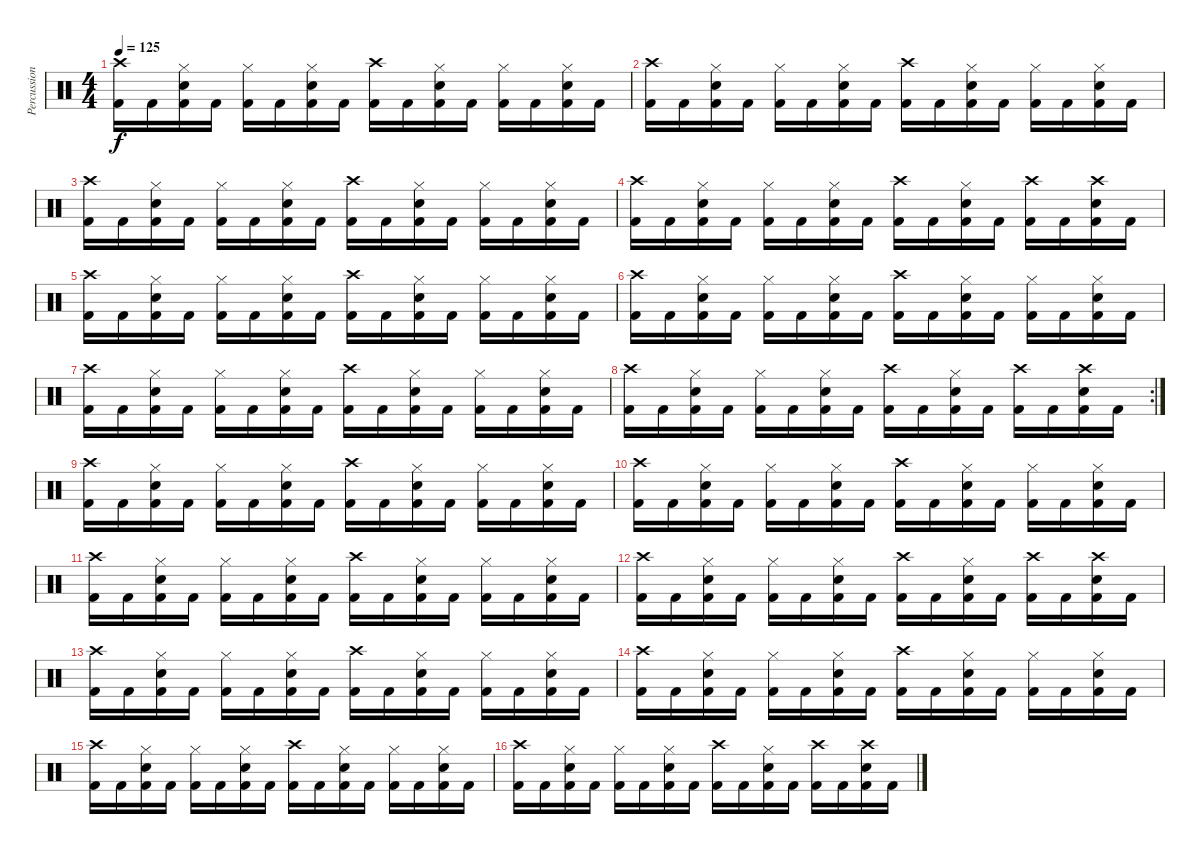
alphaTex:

\track ("Percussion" "Percussion") {instrument percussion}
\staff {score}
\articulation defaults
\ts (4 4)
\tempo 125
\clef neutral
\ks c
("Crash high (hit)" "Kick (hit) 2").16{dy f} "Kick (hit) 2".16 ("Hi-Hat (closed)" "Snare (hit) 2" "Kick (hit) 2").16 "Kick (hit) 2".16 ("Hi-Hat (closed)" "Kick (hit) 2").16 "Kick (hit) 2".16 ("Hi-Hat (closed)" "Snare (hit) 2" "Kick (hit) 2").16 "Kick (hit) 2".16 ("Crash high (hit)" "Kick (hit) 2").16 "Kick (hit) 2".16 ("Hi-Hat (closed)" "Snare (hit) 2" "Kick (hit) 2").16 "Kick (hit) 2".16 ("Hi-Hat (closed)" "Kick (hit) 2").16 "Kick (hit) 2".16 ("Hi-Hat (closed)" "Snare (hit) 2" "Kick (hit) 2").16 "Kick (hit) 2".16 |
("Crash high (hit)" "Kick (hit) 2").16 "Kick (hit) 2".16 ("Hi-Hat (closed)" "Snare (hit) 2" "Kick (hit) 2").16 "Kick (hit) 2".16 ("Hi-Hat (closed)" "Kick (hit) 2").16 "Kick (hit) 2".16 ("Hi-Hat (closed)" "Snare (hit) 2" "Kick (hit) 2").16 "Kick (hit) 2".16 ("Crash high (hit)" "Kick (hit) 2").16 "Kick (hit) 2".16 ("Hi-Hat (closed)" "Snare (hit) 2" "Kick (hit) 2").16 "Kick (hit) 2".16 ("Hi-Hat (closed)" "Kick (hit) 2").16 "Kick (hit) 2".16 ("Hi-Hat (closed)" "Snare (hit) 2" "Kick (hit) 2").16 "Kick (hit) 2".16 |
("Crash high (hit)" "Kick (hit) 2").16 "Kick (hit) 2".16 ("Hi-Hat (closed)" "Snare (hit) 2" "Kick (hit) 2").16 "Kick (hit) 2".16 ("Hi-Hat (closed)" "Kick (hit) 2").16 "Kick (hit) 2".16 ("Hi-Hat (closed)" "Snare (hit) 2" "Kick (hit) 2").16 "Kick (hit) 2".16 ("Crash high (hit)" "Kick (hit) 2").16 "Kick (hit) 2".16 ("Hi-Hat (closed)" "Snare (hit) 2" "Kick (hit) 2").16 "Kick (hit) 2".16 ("Hi-Hat (closed)" "Kick (hit) 2").16 "Kick (hit) 2".16 ("Hi-Hat (closed)" "Snare (hit) 2" "Kick (hit) 2").16 "Kick (hit) 2".16 |
("Crash high (hit)" "Kick (hit) 2").16 "Kick (hit) 2".16 ("Hi-Hat (closed)" "Snare (hit) 2" "Kick (hit) 2").16 "Kick (hit) 2".16 ("Hi-Hat (closed)" "Kick (hit) 2").16 "Kick (hit) 2".16 ("Hi-Hat (closed)" "Snare (hit) 2" "Kick (hit) 2").16 "Kick (hit) 2".16 ("Crash high (hit)" "Kick (hit) 2").16 "Kick (hit) 2".16 ("Hi-Hat (closed)" "Snare (hit) 2" "Kick (hit) 2").16 "Kick (hit) 2".16 ("Crash high (hit)" "Kick (hit) 2").16 "Kick (hit) 2".16 ("Crash high (hit)" "Snare (hit) 2" "Kick (hit) 2").16 "Kick (hit) 2".16 |
("Crash high (hit)" "Kick (hit) 2").16 "Kick (hit) 2".16 ("Hi-Hat (closed)" "Snare (hit) 2" "Kick (hit) 2").16 "Kick (hit) 2".16 ("Hi-Hat (closed)" "Kick (hit) 2").16 "Kick (hit) 2".16 ("Hi-Hat (closed)" "Snare (hit) 2" "Kick (hit) 2").16 "Kick (hit) 2".16 ("Crash high (hit)" "Kick (hit) 2").16 "Kick (hit) 2".16 ("Hi-Hat (closed)" "Snare (hit) 2" "Kick (hit) 2").16 "Kick (hit) 2".16 ("Hi-Hat (closed)" "Kick (hit) 2").16 "Kick (hit) 2".16 ("Hi-Hat (closed)" "Snare (hit) 2" "Kick (hit) 2").16 "Kick (hit) 2".16 |
("Crash high (hit)" "Kick (hit) 2").16 "Kick (hit) 2".16 ("Hi-Hat (closed)" "Snare (hit) 2" "Kick (hit) 2").16 "Kick (hit) 2".16 ("Hi-Hat (closed)" "Kick (hit) 2").16 "Kick (hit) 2".16 ("Hi-Hat (closed)" "Snare (hit) 2" "Kick (hit) 2").16 "Kick (hit) 2".16 ("Crash high (hit)" "Kick (hit) 2").16 "Kick (hit) 2".16 ("Hi-Hat (closed)" "Snare (hit) 2" "Kick (hit) 2").16 "Kick (hit) 2".16 ("Hi-Hat (closed)" "Kick (hit) 2").16 "Kick (hit) 2".16 ("Hi-Hat (closed)" "Snare (hit) 2" "Kick (hit) 2").16 "Kick (hit) 2".16 |
("Crash high (hit)" "Kick (hit) 2").16 "Kick (hit) 2".16 ("Hi-Hat (closed)" "Snare (hit) 2" "Kick (hit) 2").16 "Kick (hit) 2".16 ("Hi-Hat (closed)" "Kick (hit) 2").16 "Kick (hit) 2".16 ("Hi-Hat (closed)" "Snare (hit) 2" "Kick (hit) 2").16 "Kick (hit) 2".16 ("Crash high (hit)" "Kick (hit) 2").16 "Kick (hit) 2".16 ("Hi-Hat (closed)" "Snare (hit) 2" "Kick (hit) 2").16 "Kick (hit) 2".16 ("Hi-Hat (closed)" "Kick (hit) 2").16 "Kick (hit) 2".16 ("Hi-Hat (closed)" "Snare (hit) 2" "Kick (hit) 2").16 "Kick (hit) 2".16 |
\rc 2
("Crash high (hit)" "Kick (hit) 2").16 "Kick (hit) 2".16 ("Hi-Hat (closed)" "Snare (hit) 2" "Kick (hit) 2").16 "Kick (hit) 2".16 ("Hi-Hat (closed)" "Kick (hit) 2").16 "Kick (hit) 2".16 ("Hi-Hat (closed)" "Snare (hit) 2" "Kick (hit) 2").16 "Kick (hit) 2".16 ("Crash high (hit)" "Kick (hit) 2").16 "Kick (hit) 2".16 ("Hi-Hat (closed)" "Snare (hit) 2" "Kick (hit) 2").16 "Kick (hit) 2".16 ("Crash high (hit)" "Kick (hit) 2").16 "Kick (hit) 2".16 ("Crash high (hit)" "Snare (hit) 2" "Kick (hit) 2").16 "Kick (hit) 2".16 |
("Crash high (hit)" "Kick (hit) 2").16 "Kick (hit) 2".16 ("Hi-Hat (closed)" "Snare (hit) 2" "Kick (hit) 2").16 "Kick (hit) 2".16 ("Hi-Hat (closed)" "Kick (hit) 2").16 "Kick (hit) 2".16 ("Hi-Hat (closed)" "Snare (hit) 2" "Kick (hit) 2").16 "Kick (hit) 2".16 ("Crash high (hit)" "Kick (hit) 2").16 "Kick (hit) 2".16 ("Hi-Hat (closed)" "Snare (hit) 2" "Kick (hit) 2").16 "Kick (hit) 2".16 ("Hi-Hat (closed)" "Kick (hit) 2").16 "Kick (hit) 2".16 ("Hi-Hat (closed)" "Snare (hit) 2" "Kick (hit) 2").16 "Kick (hit) 2".16 |
("Crash high (hit)" "Kick (hit) 2").16 "Kick (hit) 2".16 ("Hi-Hat (closed)" "Snare (hit) 2" "Kick (hit) 2").16 "Kick (hit) 2".16 ("Hi-Hat (closed)" "Kick (hit) 2").16 "Kick (hit) 2".16 ("Hi-Hat (closed)" "Snare (hit) 2" "Kick (hit) 2").16 "Kick (hit) 2".16 ("Crash high (hit)" "Kick (hit) 2").16 "Kick (hit) 2".16 ("Hi-Hat (closed)" "Snare (hit) 2" "Kick (hit) 2").16 "Kick (hit) 2".16 ("Hi-Hat (closed)" "Kick (hit) 2").16 "Kick (hit) 2".16 ("Hi-Hat (closed)" "Snare (hit) 2" "Kick (hit) 2").16 "Kick (hit) 2".16 |
("Crash high (hit)" "Kick (hit) 2").16 "Kick (hit) 2".16 ("Hi-Hat (closed)" "Snare (hit) 2" "Kick (hit) 2").16 "Kick (hit) 2".16 ("Hi-Hat (closed)" "Kick (hit) 2").16 "Kick (hit) 2".16 ("Hi-Hat (closed)" "Snare (hit) 2" "Kick (hit) 2").16 "Kick (hit) 2".16 ("Crash high (hit)" "Kick (hit) 2").16 "Kick (hit) 2".16 ("Hi-Hat (closed)" "Snare (hit) 2" "Kick (hit) 2").16 "Kick (hit) 2".16 ("Hi-Hat (closed)" "Kick (hit) 2").16 "Kick (hit) 2".16 ("Hi-Hat (closed)" "Snare (hit) 2" "Kick (hit) 2").16 "Kick (hit) 2".16 |
("Crash high (hit)" "Kick (hit) 2").16 "Kick (hit) 2".16 ("Hi-Hat (closed)" "Snare (hit) 2" "Kick (hit) 2").16 "Kick (hit) 2".16 ("Hi-Hat (closed)" "Kick (hit) 2").16 "Kick (hit) 2".16 ("Hi-Hat (closed)" "Snare (hit) 2" "Kick (hit) 2").16 "Kick (hit) 2".16 ("Crash high (hit)" "Kick (hit) 2").16 "Kick (hit) 2".16 ("Hi-Hat (closed)" "Snare (hit) 2" "Kick (hit) 2").16 "Kick (hit) 2".16 ("Crash high (hit)" "Kick (hit) 2").16 "Kick (hit) 2".16 ("Crash high (hit)" "Snare (hit) 2" "Kick (hit) 2").16 "Kick (hit) 2".16 |
("Crash high (hit)" "Kick (hit) 2").16 "Kick (hit) 2".16 ("Hi-Hat (closed)" "Snare (hit) 2" "Kick (hit) 2").16 "Kick (hit) 2".16 ("Hi-Hat (closed)" "Kick (hit) 2").16 "Kick (hit) 2".16 ("Hi-Hat (closed)" "Snare (hit) 2" "Kick (hit) 2").16 "Kick (hit) 2".16 ("Crash high (hit)" "Kick (hit) 2").16 "Kick (hit) 2".16 ("Hi-Hat (closed)" "Snare (hit) 2" "Kick (hit) 2").16 "Kick (hit) 2".16 ("Hi-Hat (closed)" "Kick (hit) 2").16 "Kick (hit) 2".16 ("Hi-Hat (closed)" "Snare (hit) 2" "Kick (hit) 2").16 "Kick (hit) 2".16 |
("Crash high (hit)" "Kick (hit) 2").16 "Kick (hit) 2".16 ("Hi-Hat (closed)" "Snare (hit) 2" "Kick (hit) 2").16 "Kick (hit) 2".16 ("Hi-Hat (closed)" "Kick (hit) 2").16 "Kick (hit) 2".16 ("Hi-Hat (closed)" "Snare (hit) 2" "Kick (hit) 2").16 "Kick (hit) 2".16 ("Crash high (hit)" "Kick (hit) 2").16 "Kick (hit) 2".16 ("Hi-Hat (closed)" "Snare (hit) 2" "Kick (hit) 2").16 "Kick (hit) 2".16 ("Hi-Hat (closed)" "Kick (hit) 2").16 "Kick (hit) 2".16 ("Hi-Hat (closed)" "Snare (hit) 2" "Kick (hit) 2").16 "Kick (hit) 2".16 |
("Crash high (hit)" "Kick (hit) 2").16 "Kick (hit) 2".16 ("Hi-Hat (closed)" "Snare (hit) 2" "Kick (hit) 2").16 "Kick (hit) 2".16 ("Hi-Hat (closed)" "Kick (hit) 2").16 "Kick (hit) 2".16 ("Hi-Hat (closed)" "Snare (hit) 2" "Kick (hit) 2").16 "Kick (hit) 2".16 ("Crash high (hit)" "Kick (hit) 2").16 "Kick (hit) 2".16 ("Hi-Hat (closed)" "Snare (hit) 2" "Kick (hit) 2").16 "Kick (hit) 2".16 ("Hi-Hat (closed)" "Kick (hit) 2").16 "Kick (hit) 2".16 ("Hi-Hat (closed)" "Snare (hit) 2" "Kick (hit) 2").16 "Kick (hit) 2".16 |
("Crash high (hit)" "Kick (hit) 2").16 "Kick (hit) 2".16 ("Hi-Hat (closed)" "Snare (hit) 2" "Kick (hit) 2").16 "Kick (hit) 2".16 ("Hi-Hat (closed)" "Kick (hit) 2").16 "Kick (hit) 2".16 ("Hi-Hat (closed)" "Snare (hit) 2" "Kick (hit) 2").16 "Kick (hit) 2".16 ("Crash high (hit)" "Kick (hit) 2").16 "Kick (hit) 2".16 ("Hi-Hat (closed)" "Snare (hit) 2" "Kick (hit) 2").16 "Kick (hit) 2".16 ("Crash high (hit)" "Kick (hit) 2").16 "Kick (hit) 2".16 ("Crash high (hit)" "Snare (hit) 2" "Kick (hit) 2").16 "Kick (hit) 2".16
